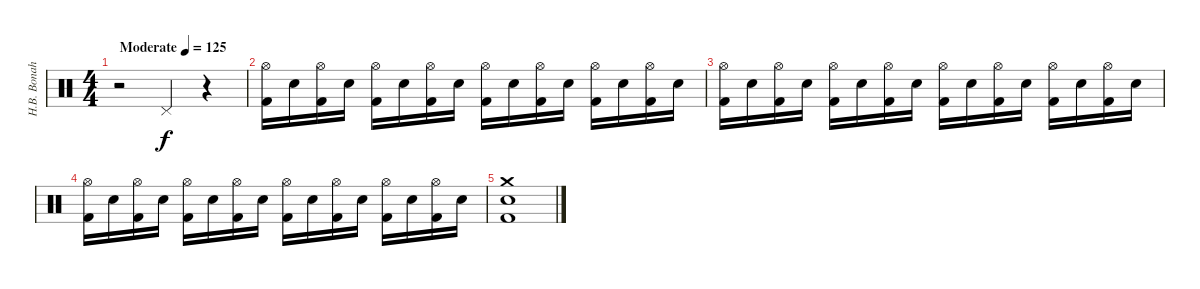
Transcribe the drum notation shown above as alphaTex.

\track ("H.B. Bonah" "H.B. Bonah") {instrument percussion}
\staff {score}
\articulation defaults
\ts (4 4)
\tempo (125 "Moderate")
\clef neutral
\ks c
r.2{dy f} "Pedal Hi-Hat (hit)".4 r.4 |
("Hi-Hat (open)" "Kick (hit) 2").16 "Electric Snare (hit)".16 ("Hi-Hat (open)" "Kick (hit) 2").16 "Electric Snare (hit)".16 ("Hi-Hat (open)" "Kick (hit) 2").16 "Electric Snare (hit)".16 ("Hi-Hat (open)" "Kick (hit) 2").16 "Electric Snare (hit)".16 ("Hi-Hat (open)" "Kick (hit) 2").16 "Electric Snare (hit)".16 ("Hi-Hat (open)" "Kick (hit) 2").16 "Electric Snare (hit)".16 ("Hi-Hat (open)" "Kick (hit) 2").16 "Electric Snare (hit)".16 ("Hi-Hat (open)" "Kick (hit) 2").16 "Electric Snare (hit)".16 |
("Hi-Hat (open)" "Kick (hit) 2").16 "Electric Snare (hit)".16 ("Hi-Hat (open)" "Kick (hit) 2").16 "Electric Snare (hit)".16 ("Hi-Hat (open)" "Kick (hit) 2").16 "Electric Snare (hit)".16 ("Hi-Hat (open)" "Kick (hit) 2").16 "Electric Snare (hit)".16 ("Hi-Hat (open)" "Kick (hit) 2").16 "Electric Snare (hit)".16 ("Hi-Hat (open)" "Kick (hit) 2").16 "Electric Snare (hit)".16 ("Hi-Hat (open)" "Kick (hit) 2").16 "Electric Snare (hit)".16 ("Hi-Hat (open)" "Kick (hit) 2").16 "Electric Snare (hit)".16 |
("Hi-Hat (open)" "Kick (hit) 2").16 "Electric Snare (hit)".16 ("Hi-Hat (open)" "Kick (hit) 2").16 "Electric Snare (hit)".16 ("Hi-Hat (open)" "Kick (hit) 2").16 "Electric Snare (hit)".16 ("Hi-Hat (open)" "Kick (hit) 2").16 "Electric Snare (hit)".16 ("Hi-Hat (open)" "Kick (hit) 2").16 "Electric Snare (hit)".16 ("Hi-Hat (open)" "Kick (hit) 2").16 "Electric Snare (hit)".16 ("Hi-Hat (open)" "Kick (hit) 2").16 "Electric Snare (hit)".16 ("Hi-Hat (open)" "Kick (hit) 2").16 "Electric Snare (hit)".16 |
("Crash medium (hit)" "Electric Snare (hit)" "Kick (hit) 2").1
